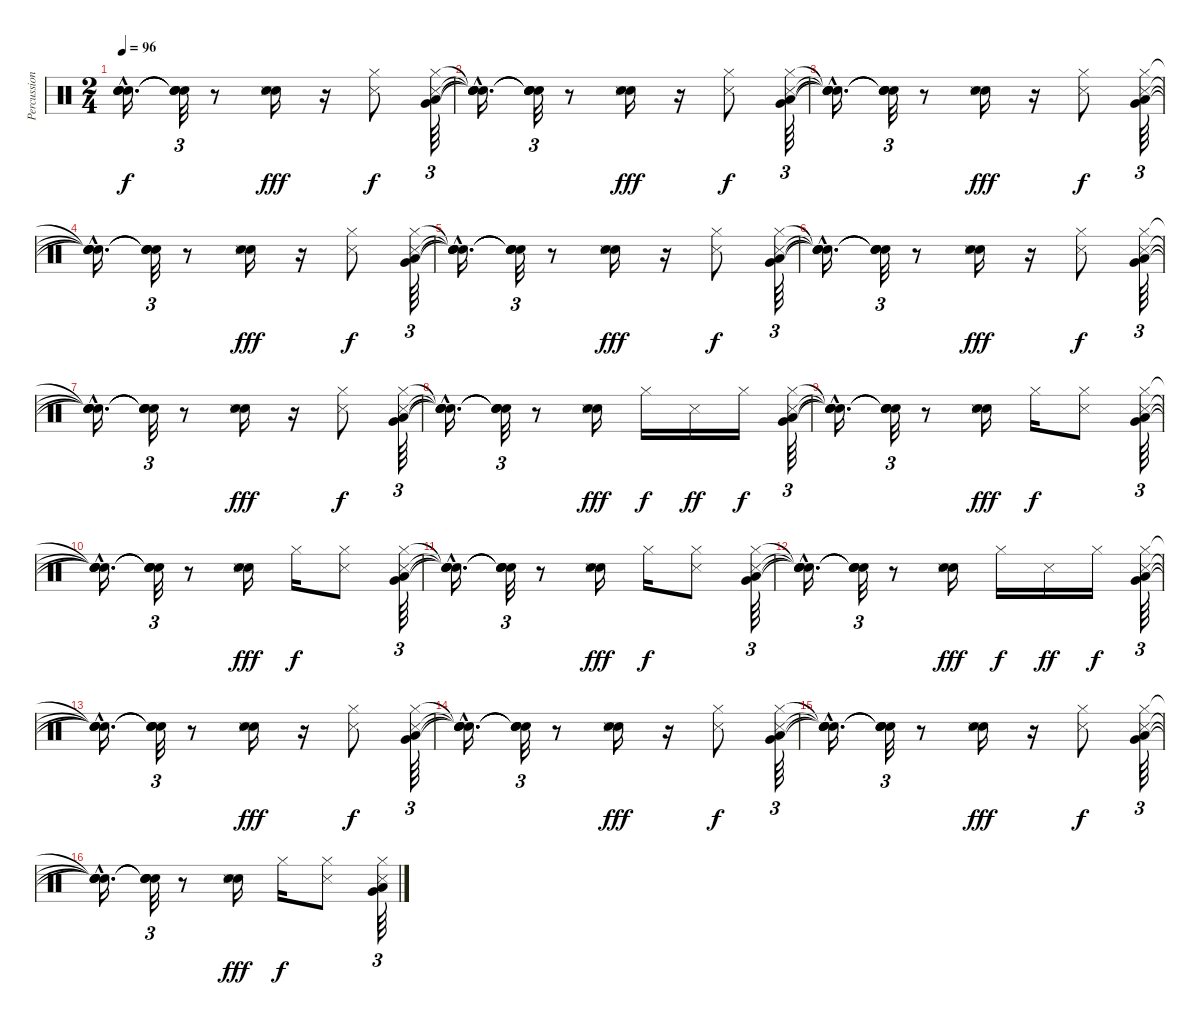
\track ("Percussion" "Percussion") {instrument percussion}
\staff {score}
\articulation defaults
\ts (2 4)
\tempo 96
\clef neutral
\ks c
("Snare (hit)"{hac t} "Snare (hit)"{hac t} "Snare (hit)"{hac t} "Snare (hit)"{hac t}).16{d dy f} ("Snare (hit)"{t} "Snare (hit)"{t} "Snare (hit)"{t} "Snare (hit)"{t}).32{tu (3 2)} r.8 ("Electric Snare (hit)" "Snare (side stick) 3" "Snare (hit) 2").16{dy fff} r.16 ("Hi-Hat (closed)" "Snare (side stick) 3").8{dy f} ("Hi-Hat (closed)" "Snare (side stick) 3" "Very Low Tom (hit)" "Low Floor Tom (hit)").64{tu (3 2)} |
("Snare (hit)"{hac t} "Snare (hit)"{hac t} "Snare (hit)"{hac t} "Snare (hit)"{hac t}).16{d} ("Snare (hit)"{t} "Snare (hit)"{t} "Snare (hit)"{t} "Snare (hit)"{t}).32{tu (3 2)} r.8 ("Electric Snare (hit)" "Snare (side stick) 3" "Snare (hit) 2").16{dy fff} r.16 ("Hi-Hat (closed)" "Snare (side stick) 3").8{dy f} ("Hi-Hat (closed)" "Snare (side stick) 3" "Very Low Tom (hit)" "Low Floor Tom (hit)").64{tu (3 2)} |
("Snare (hit)"{hac t} "Snare (hit)"{hac t} "Snare (hit)"{hac t} "Snare (hit)"{hac t}).16{d} ("Snare (hit)"{t} "Snare (hit)"{t} "Snare (hit)"{t} "Snare (hit)"{t}).32{tu (3 2)} r.8 ("Electric Snare (hit)" "Snare (side stick) 3" "Snare (hit) 2").16{dy fff} r.16 ("Hi-Hat (closed)" "Snare (side stick) 3").8{dy f} ("Hi-Hat (closed)" "Snare (side stick) 3" "Very Low Tom (hit)" "Low Floor Tom (hit)").64{tu (3 2)} |
("Snare (hit)"{hac t} "Snare (hit)"{hac t} "Snare (hit)"{hac t} "Snare (hit)"{hac t}).16{d} ("Snare (hit)"{t} "Snare (hit)"{t} "Snare (hit)"{t} "Snare (hit)"{t}).32{tu (3 2)} r.8 ("Electric Snare (hit)" "Snare (side stick) 3" "Snare (hit) 2").16{dy fff} r.16 ("Hi-Hat (closed)" "Snare (side stick) 3").8{dy f} ("Hi-Hat (closed)" "Snare (side stick) 3" "Very Low Tom (hit)" "Low Floor Tom (hit)").64{tu (3 2)} |
("Snare (hit)"{hac t} "Snare (hit)"{hac t} "Snare (hit)"{hac t} "Snare (hit)"{hac t}).16{d} ("Snare (hit)"{t} "Snare (hit)"{t} "Snare (hit)"{t} "Snare (hit)"{t}).32{tu (3 2)} r.8 ("Electric Snare (hit)" "Snare (side stick) 3" "Snare (hit) 2").16{dy fff} r.16 ("Hi-Hat (closed)" "Snare (side stick) 3").8{dy f} ("Hi-Hat (closed)" "Snare (side stick) 3" "Very Low Tom (hit)" "Low Floor Tom (hit)").64{tu (3 2)} |
("Snare (hit)"{hac t} "Snare (hit)"{hac t} "Snare (hit)"{hac t} "Snare (hit)"{hac t}).16{d} ("Snare (hit)"{t} "Snare (hit)"{t} "Snare (hit)"{t} "Snare (hit)"{t}).32{tu (3 2)} r.8 ("Electric Snare (hit)" "Snare (side stick) 3" "Snare (hit) 2").16{dy fff} r.16 ("Hi-Hat (closed)" "Snare (side stick) 3").8{dy f} ("Hi-Hat (closed)" "Snare (side stick) 3" "Very Low Tom (hit)" "Low Floor Tom (hit)").64{tu (3 2)} |
("Snare (hit)"{hac t} "Snare (hit)"{hac t} "Snare (hit)"{hac t} "Snare (hit)"{hac t}).16{d} ("Snare (hit)"{t} "Snare (hit)"{t} "Snare (hit)"{t} "Snare (hit)"{t}).32{tu (3 2)} r.8 ("Electric Snare (hit)" "Snare (side stick) 3" "Snare (hit) 2").16{dy fff} r.16 ("Hi-Hat (closed)" "Snare (side stick) 3").8{dy f} ("Hi-Hat (closed)" "Snare (side stick) 3" "Very Low Tom (hit)" "Low Floor Tom (hit)").64{tu (3 2)} |
("Snare (hit)"{hac t} "Snare (hit)"{hac t} "Snare (hit)"{hac t} "Snare (hit)"{hac t}).16{d} ("Snare (hit)"{t} "Snare (hit)"{t} "Snare (hit)"{t} "Snare (hit)"{t}).32{tu (3 2)} r.8 ("Electric Snare (hit)" "Snare (side stick) 3" "Snare (hit) 2").16{dy fff} "Hi-Hat (closed)".16{dy f} "Snare (side stick) 3".16{dy ff} "Hi-Hat (closed)".16{dy f} ("Hi-Hat (closed)" "Snare (side stick) 3" "Very Low Tom (hit)" "Low Floor Tom (hit)").64{tu (3 2)} |
("Snare (hit)"{hac t} "Snare (hit)"{hac t} "Snare (hit)"{hac t} "Snare (hit)"{hac t}).16{d} ("Snare (hit)"{t} "Snare (hit)"{t} "Snare (hit)"{t} "Snare (hit)"{t}).32{tu (3 2)} r.8 ("Electric Snare (hit)" "Snare (side stick) 3" "Snare (hit) 2").16{dy fff} "Hi-Hat (closed)".16{dy f} ("Hi-Hat (closed)" "Snare (side stick) 3").8 ("Hi-Hat (closed)" "Snare (side stick) 3" "Very Low Tom (hit)" "Low Floor Tom (hit)").64{tu (3 2)} |
("Snare (hit)"{hac t} "Snare (hit)"{hac t} "Snare (hit)"{hac t} "Snare (hit)"{hac t}).16{d} ("Snare (hit)"{t} "Snare (hit)"{t} "Snare (hit)"{t} "Snare (hit)"{t}).32{tu (3 2)} r.8 ("Electric Snare (hit)" "Snare (side stick) 3" "Snare (hit) 2").16{dy fff} "Hi-Hat (closed)".16{dy f} ("Hi-Hat (closed)" "Snare (side stick) 3").8 ("Hi-Hat (closed)" "Snare (side stick) 3" "Very Low Tom (hit)" "Low Floor Tom (hit)").64{tu (3 2)} |
("Snare (hit)"{hac t} "Snare (hit)"{hac t} "Snare (hit)"{hac t} "Snare (hit)"{hac t}).16{d} ("Snare (hit)"{t} "Snare (hit)"{t} "Snare (hit)"{t} "Snare (hit)"{t}).32{tu (3 2)} r.8 ("Electric Snare (hit)" "Snare (side stick) 3" "Snare (hit) 2").16{dy fff} "Hi-Hat (closed)".16{dy f} ("Hi-Hat (closed)" "Snare (side stick) 3").8 ("Hi-Hat (closed)" "Snare (side stick) 3" "Very Low Tom (hit)" "Low Floor Tom (hit)").64{tu (3 2)} |
("Snare (hit)"{hac t} "Snare (hit)"{hac t} "Snare (hit)"{hac t} "Snare (hit)"{hac t}).16{d} ("Snare (hit)"{t} "Snare (hit)"{t} "Snare (hit)"{t} "Snare (hit)"{t}).32{tu (3 2)} r.8 ("Electric Snare (hit)" "Snare (side stick) 3" "Snare (hit) 2").16{dy fff} "Hi-Hat (closed)".16{dy f} "Snare (side stick) 3".16{dy ff} "Hi-Hat (closed)".16{dy f} ("Hi-Hat (closed)" "Snare (side stick) 3" "Very Low Tom (hit)" "Low Floor Tom (hit)").64{tu (3 2)} |
("Snare (hit)"{hac t} "Snare (hit)"{hac t} "Snare (hit)"{hac t} "Snare (hit)"{hac t}).16{d} ("Snare (hit)"{t} "Snare (hit)"{t} "Snare (hit)"{t} "Snare (hit)"{t}).32{tu (3 2)} r.8 ("Electric Snare (hit)" "Snare (side stick) 3" "Snare (hit) 2").16{dy fff} r.16 ("Hi-Hat (closed)" "Snare (side stick) 3").8{dy f} ("Hi-Hat (closed)" "Snare (side stick) 3" "Very Low Tom (hit)" "Low Floor Tom (hit)").64{tu (3 2)} |
("Snare (hit)"{hac t} "Snare (hit)"{hac t} "Snare (hit)"{hac t} "Snare (hit)"{hac t}).16{d} ("Snare (hit)"{t} "Snare (hit)"{t} "Snare (hit)"{t} "Snare (hit)"{t}).32{tu (3 2)} r.8 ("Electric Snare (hit)" "Snare (side stick) 3" "Snare (hit) 2").16{dy fff} r.16 ("Hi-Hat (closed)" "Snare (side stick) 3").8{dy f} ("Hi-Hat (closed)" "Snare (side stick) 3" "Very Low Tom (hit)" "Low Floor Tom (hit)").64{tu (3 2)} |
("Snare (hit)"{hac t} "Snare (hit)"{hac t} "Snare (hit)"{hac t} "Snare (hit)"{hac t}).16{d} ("Snare (hit)"{t} "Snare (hit)"{t} "Snare (hit)"{t} "Snare (hit)"{t}).32{tu (3 2)} r.8 ("Electric Snare (hit)" "Snare (side stick) 3" "Snare (hit) 2").16{dy fff} r.16 ("Hi-Hat (closed)" "Snare (side stick) 3").8{dy f} ("Hi-Hat (closed)" "Snare (side stick) 3" "Very Low Tom (hit)" "Low Floor Tom (hit)").64{tu (3 2)} |
("Snare (hit)"{hac t} "Snare (hit)"{hac t} "Snare (hit)"{hac t} "Snare (hit)"{hac t}).16{d} ("Snare (hit)"{t} "Snare (hit)"{t} "Snare (hit)"{t} "Snare (hit)"{t}).32{tu (3 2)} r.8 ("Electric Snare (hit)" "Snare (side stick) 3" "Snare (hit) 2").16{dy fff} "Hi-Hat (closed)".16{dy f} ("Hi-Hat (closed)" "Snare (side stick) 3").8 ("Hi-Hat (closed)" "Snare (side stick) 3" "Very Low Tom (hit)" "Low Floor Tom (hit)").64{tu (3 2)}
